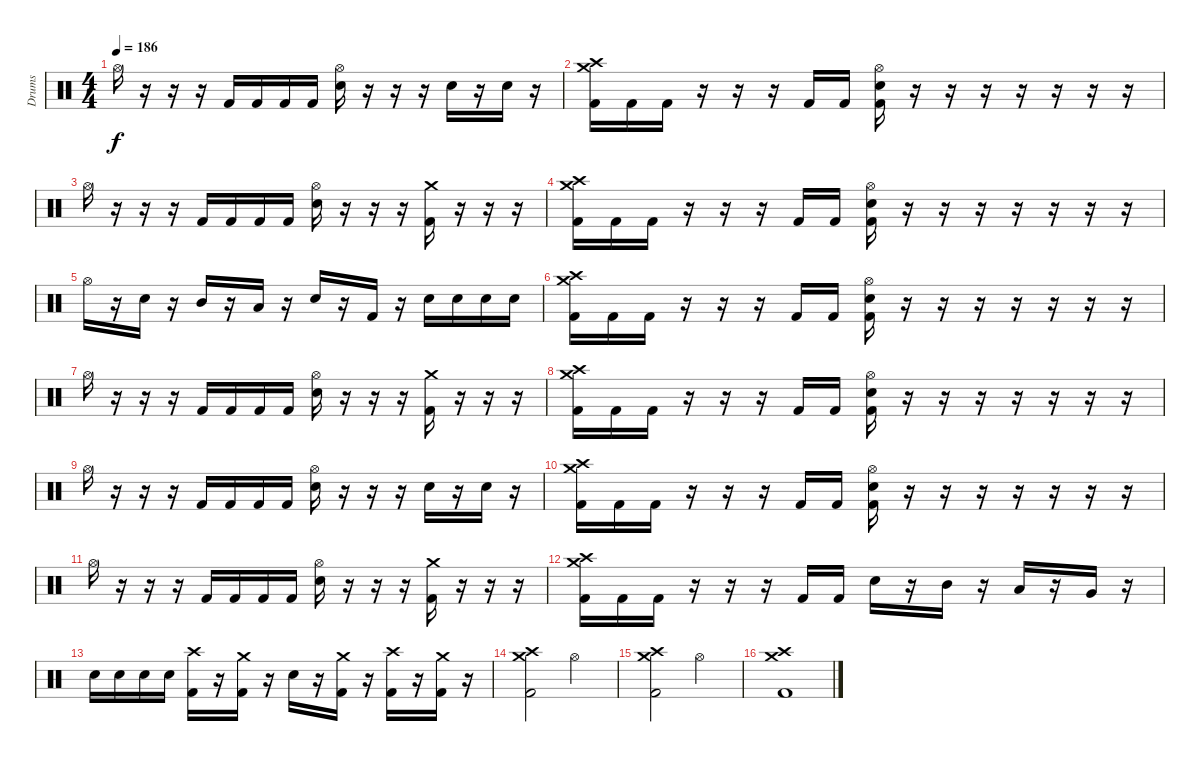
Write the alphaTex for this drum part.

\track ("Drums" "Drums") {instrument percussion}
\staff {score}
\articulation defaults
\ts (4 4)
\tempo 186
\clef neutral
\ks c "Hi-Hat (open)".16{dy f}
r.16 r.16 r.16 "Kick (hit) 2".16 "Kick (hit) 2".16 "Kick (hit) 2".16 "Kick (hit) 2".16 ("Hi-Hat (open)" "Snare (hit) 2").16 r.16 r.16 r.16 "Snare (hit) 2".16 r.16 "Snare (hit) 2".16 r.16 |
("Crash high (hit)" "Crash medium (hit)" "Kick (hit) 2").16 "Kick (hit) 2".16 "Kick (hit) 2".16 r.16 r.16 r.16 "Kick (hit) 2".16 "Kick (hit) 2".16 ("Hi-Hat (open)" "Snare (hit) 2" "Kick (hit) 2").16 r.16 r.16 r.16 r.16 r.16 r.16 r.16 |
"Hi-Hat (open)".16 r.16 r.16 r.16 "Kick (hit) 2".16 "Kick (hit) 2".16 "Kick (hit) 2".16 "Kick (hit) 2".16 ("Hi-Hat (open)" "Snare (hit) 2").16 r.16 r.16 r.16 ("Crash medium (hit)" "Kick (hit) 2").16 r.16 r.16 r.16 |
("Crash high (hit)" "Crash medium (hit)" "Kick (hit) 2").16 "Kick (hit) 2".16 "Kick (hit) 2".16 r.16 r.16 r.16 "Kick (hit) 2".16 "Kick (hit) 2".16 ("Hi-Hat (open)" "Snare (hit) 2" "Kick (hit) 2").16 r.16 r.16 r.16 r.16 r.16 r.16 r.16 |
"Hi-Hat (open)".16 r.16 "Snare (hit) 2".16 r.16 "Mid Tom (hit)".16 r.16 "Low Tom (hit)".16 r.16 "Snare (hit) 2".16 r.16 "Kick (hit) 2".16 r.16 "Snare (hit) 2".16 "Snare (hit) 2".16 "Snare (hit) 2".16 "Snare (hit) 2".16 |
("Crash high (hit)" "Crash medium (hit)" "Kick (hit) 2").16 "Kick (hit) 2".16 "Kick (hit) 2".16 r.16 r.16 r.16 "Kick (hit) 2".16 "Kick (hit) 2".16 ("Hi-Hat (open)" "Snare (hit) 2" "Kick (hit) 2").16 r.16 r.16 r.16 r.16 r.16 r.16 r.16 |
"Hi-Hat (open)".16 r.16 r.16 r.16 "Kick (hit) 2".16 "Kick (hit) 2".16 "Kick (hit) 2".16 "Kick (hit) 2".16 ("Hi-Hat (open)" "Snare (hit) 2").16 r.16 r.16 r.16 ("Crash medium (hit)" "Kick (hit) 2").16 r.16 r.16 r.16 |
("Crash high (hit)" "Crash medium (hit)" "Kick (hit) 2").16 "Kick (hit) 2".16 "Kick (hit) 2".16 r.16 r.16 r.16 "Kick (hit) 2".16 "Kick (hit) 2".16 ("Hi-Hat (open)" "Snare (hit) 2" "Kick (hit) 2").16 r.16 r.16 r.16 r.16 r.16 r.16 r.16 |
"Hi-Hat (open)".16 r.16 r.16 r.16 "Kick (hit) 2".16 "Kick (hit) 2".16 "Kick (hit) 2".16 "Kick (hit) 2".16 ("Hi-Hat (open)" "Snare (hit) 2").16 r.16 r.16 r.16 "Snare (hit) 2".16 r.16 "Snare (hit) 2".16 r.16 |
("Crash high (hit)" "Crash medium (hit)" "Kick (hit) 2").16 "Kick (hit) 2".16 "Kick (hit) 2".16 r.16 r.16 r.16 "Kick (hit) 2".16 "Kick (hit) 2".16 ("Hi-Hat (open)" "Snare (hit) 2" "Kick (hit) 2").16 r.16 r.16 r.16 r.16 r.16 r.16 r.16 |
"Hi-Hat (open)".16 r.16 r.16 r.16 "Kick (hit) 2".16 "Kick (hit) 2".16 "Kick (hit) 2".16 "Kick (hit) 2".16 ("Hi-Hat (open)" "Snare (hit) 2").16 r.16 r.16 r.16 ("Crash medium (hit)" "Kick (hit) 2").16 r.16 r.16 r.16 |
("Crash high (hit)" "Crash medium (hit)" "Kick (hit) 2").16 "Kick (hit) 2".16 "Kick (hit) 2".16 r.16 r.16 r.16 "Kick (hit) 2".16 "Kick (hit) 2".16 "Snare (hit) 2".16 r.16 "Mid Tom (hit)".16 r.16 "Low Tom (hit)".16 r.16 "Very Low Tom (hit)".16 r.16 |
"Snare (hit) 2".16 "Snare (hit) 2".16 "Snare (hit) 2".16 "Snare (hit) 2".16 ("Crash high (hit)" "Kick (hit) 2").16 r.16 ("Crash medium (hit)" "Kick (hit) 2").16 r.16 "Snare (hit) 2".16 r.16 ("Crash medium (hit)" "Kick (hit) 2").16 r.16 ("Crash high (hit)" "Kick (hit) 2").16 r.16 ("Crash medium (hit)" "Kick (hit) 2").16 r.16 |
("Crash high (hit)" "Crash medium (hit)" "Kick (hit) 2").2 "Hi-Hat (open)".2 |
("Crash high (hit)" "Crash medium (hit)" "Kick (hit) 2").2 "Hi-Hat (open)".2 |
("Crash high (hit)" "Crash medium (hit)" "Kick (hit) 2").1
